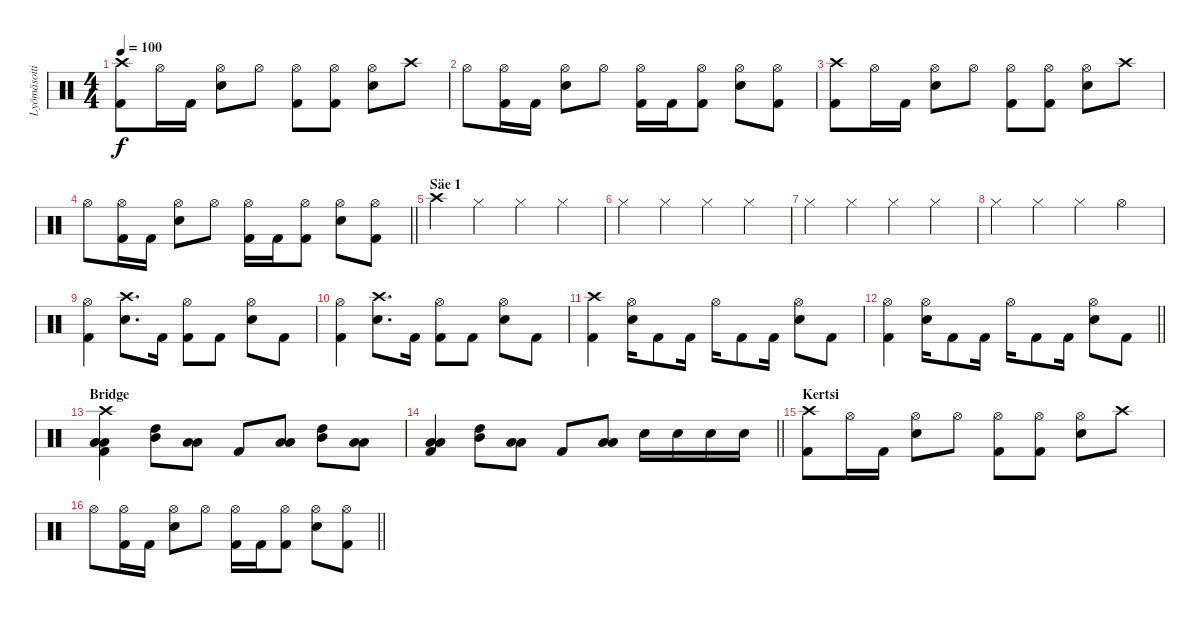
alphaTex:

\track ("Lyömäsoitin" "Lyömäsoiti") {instrument percussion}
\staff {score}
\articulation defaults
\ts (4 4)
\tempo 100
\clef neutral
\ks c
("Crash high (hit)" "Kick (hit) 2").8{dy f} "Hi-Hat (open)".16 "Kick (hit) 2".16 ("Hi-Hat (open)" "Snare (hit) 2").8 "Hi-Hat (open)".8 ("Hi-Hat (open)" "Kick (hit) 2").8 ("Hi-Hat (open)" "Kick (hit) 2").8 ("Hi-Hat (open)" "Snare (hit) 2").8 "Crash high (hit)".8 |
"Hi-Hat (open)".8 ("Hi-Hat (open)" "Kick (hit) 2").16 "Kick (hit) 2".16 ("Hi-Hat (open)" "Snare (hit) 2").8 "Hi-Hat (open)".8 ("Hi-Hat (open)" "Kick (hit) 2").16 "Kick (hit) 2".16 ("Hi-Hat (open)" "Kick (hit) 2").8 ("Hi-Hat (open)" "Snare (hit) 2").8 ("Hi-Hat (open)" "Kick (hit) 2").8 |
("Crash high (hit)" "Kick (hit) 2").8 "Hi-Hat (open)".16 "Kick (hit) 2".16 ("Hi-Hat (open)" "Snare (hit) 2").8 "Hi-Hat (open)".8 ("Hi-Hat (open)" "Kick (hit) 2").8 ("Hi-Hat (open)" "Kick (hit) 2").8 ("Hi-Hat (open)" "Snare (hit) 2").8 "Crash high (hit)".8 |
\barLineRight lightlight "Hi-Hat (open)".8
("Hi-Hat (open)" "Kick (hit) 2").16 "Kick (hit) 2".16 ("Hi-Hat (open)" "Snare (hit) 2").8 "Hi-Hat (open)".8 ("Hi-Hat (open)" "Kick (hit) 2").16 "Kick (hit) 2".16 ("Hi-Hat (open)" "Kick (hit) 2").8 ("Hi-Hat (open)" "Snare (hit) 2").8 ("Hi-Hat (open)" "Kick (hit) 2").8 |
\section ("" "Säe 1")
"Crash high (hit)".4 "Hi-Hat (closed)".4 "Hi-Hat (closed)".4 "Hi-Hat (closed)".4 |
"Hi-Hat (closed)".4 "Hi-Hat (closed)".4 "Hi-Hat (closed)".4 "Hi-Hat (closed)".4 |
"Hi-Hat (closed)".4 "Hi-Hat (closed)".4 "Hi-Hat (closed)".4 "Hi-Hat (closed)".4 |
"Hi-Hat (closed)".4 "Hi-Hat (closed)".4 "Hi-Hat (closed)".4 "Hi-Hat (open)".4 |
("Hi-Hat (open)" "Kick (hit) 2").4 ("Crash high (hit)" "Snare (hit) 2").8{d} "Kick (hit) 2".16 ("Hi-Hat (open)" "Kick (hit) 2").8 "Kick (hit) 2".8 ("Hi-Hat (open)" "Snare (hit) 2").8 "Kick (hit) 2".8 |
("Hi-Hat (open)" "Kick (hit) 2").4 ("Crash high (hit)" "Snare (hit) 2").8{d} "Kick (hit) 2".16 ("Hi-Hat (open)" "Kick (hit) 2").8 "Kick (hit) 2".8 ("Hi-Hat (open)" "Snare (hit) 2").8 "Kick (hit) 2".8 |
("Crash high (hit)" "Kick (hit) 2").4 ("Hi-Hat (open)" "Snare (hit) 2").16 "Kick (hit) 2".8 "Kick (hit) 2".16 "Hi-Hat (open)".16 "Kick (hit) 2".8 "Kick (hit) 2".16 ("Hi-Hat (open)" "Snare (hit) 2").8 "Kick (hit) 2".8 |
\barLineRight lightlight
("Hi-Hat (open)" "Kick (hit) 2").4 ("Hi-Hat (open)" "Snare (hit) 2").16 "Kick (hit) 2".8 "Kick (hit) 2".16 "Hi-Hat (open)".16 "Kick (hit) 2".8 "Kick (hit) 2".16 ("Hi-Hat (open)" "Snare (hit) 2").8 "Kick (hit) 2".8 |
\section ("" "Bridge")
("Crash high (hit)" "Low Tom (hit)" "Low Tom (hit)" "Kick (hit) 2").4 ("Mid Tom (hit)" "High Tom (hit)").8 ("Low Tom (hit)" "Low Tom (hit)").8 "Kick (hit) 2".8 ("Low Tom (hit)" "Low Tom (hit)").8 ("High Tom (hit)" "Mid Tom (hit)").8 ("Low Tom (hit)" "Low Tom (hit)").8 |
\barLineRight lightlight
("Low Tom (hit)" "Low Tom (hit)" "Kick (hit) 2").4 ("Mid Tom (hit)" "High Tom (hit)").8 ("Low Tom (hit)" "Low Tom (hit)").8 "Kick (hit) 2".8 ("Low Tom (hit)" "Low Tom (hit)").8 "Snare (hit) 2".16 "Snare (hit) 2".16 "Snare (hit) 2".16 "Snare (hit) 2".16 |
\section ("" "Kertsi")
("Crash high (hit)" "Kick (hit) 2").8 "Hi-Hat (open)".16 "Kick (hit) 2".16 ("Hi-Hat (open)" "Snare (hit) 2").8 "Hi-Hat (open)".8 ("Hi-Hat (open)" "Kick (hit) 2").8 ("Hi-Hat (open)" "Kick (hit) 2").8 ("Hi-Hat (open)" "Snare (hit) 2").8 "Crash high (hit)".8 |
\barLineRight lightlight "Hi-Hat (open)".8
("Hi-Hat (open)" "Kick (hit) 2").16 "Kick (hit) 2".16 ("Hi-Hat (open)" "Snare (hit) 2").8 "Hi-Hat (open)".8 ("Hi-Hat (open)" "Kick (hit) 2").16 "Kick (hit) 2".16 ("Hi-Hat (open)" "Kick (hit) 2").8 ("Hi-Hat (open)" "Snare (hit) 2").8 ("Hi-Hat (open)" "Kick (hit) 2").8
